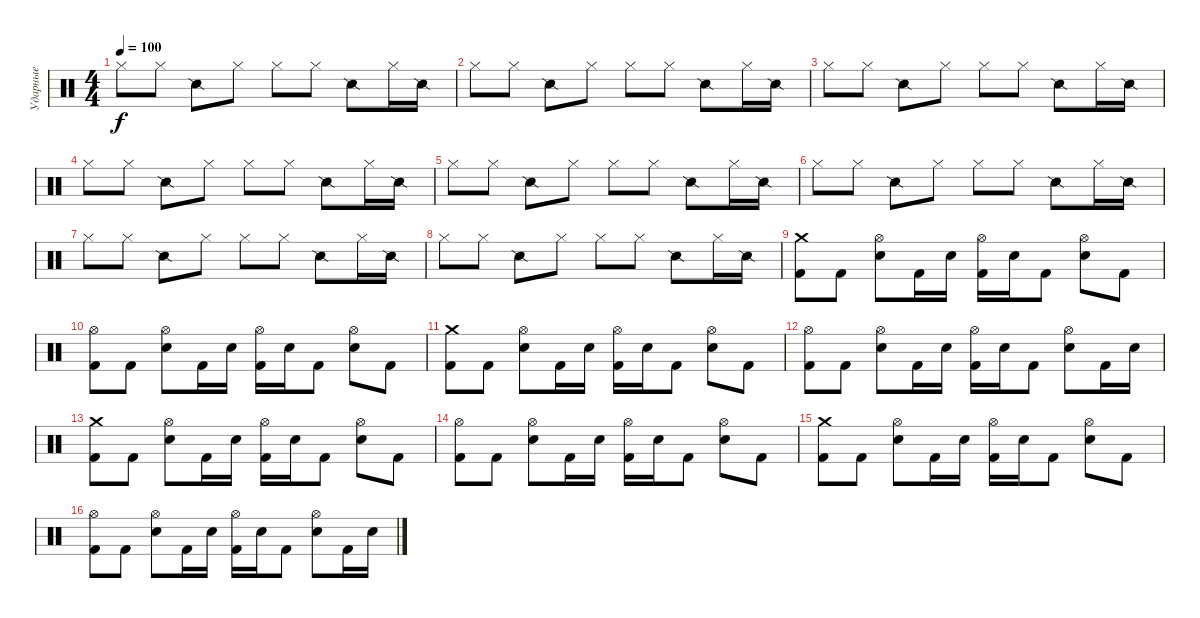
\track ("Ударные" "Ударные") {instrument percussion}
\staff {score}
\articulation defaults
\ts (4 4)
\tempo 100
\clef neutral
\ks c "Hi-Hat (closed)".8{dy f} "Hi-Hat (closed)".8 "Snare (side stick) 2".8 "Hi-Hat (closed)".8 "Hi-Hat (closed)".8 "Hi-Hat (closed)".8 "Snare (side stick) 2".8 "Hi-Hat (closed)".16 "Snare (side stick) 2".16
|
"Hi-Hat (closed)".8 "Hi-Hat (closed)".8 "Snare (side stick) 2".8 "Hi-Hat (closed)".8 "Hi-Hat (closed)".8 "Hi-Hat (closed)".8 "Snare (side stick) 2".8 "Hi-Hat (closed)".16 "Snare (side stick) 2".16 |
"Hi-Hat (closed)".8 "Hi-Hat (closed)".8 "Snare (side stick) 2".8 "Hi-Hat (closed)".8 "Hi-Hat (closed)".8 "Hi-Hat (closed)".8 "Snare (side stick) 2".8 "Hi-Hat (closed)".16 "Snare (side stick) 2".16 |
"Hi-Hat (closed)".8 "Hi-Hat (closed)".8 "Snare (side stick) 2".8 "Hi-Hat (closed)".8 "Hi-Hat (closed)".8 "Hi-Hat (closed)".8 "Snare (side stick) 2".8 "Hi-Hat (closed)".16 "Snare (side stick) 2".16 |
"Hi-Hat (closed)".8 "Hi-Hat (closed)".8 "Snare (side stick) 2".8 "Hi-Hat (closed)".8 "Hi-Hat (closed)".8 "Hi-Hat (closed)".8 "Snare (side stick) 2".8 "Hi-Hat (closed)".16 "Snare (side stick) 2".16 |
"Hi-Hat (closed)".8 "Hi-Hat (closed)".8 "Snare (side stick) 2".8 "Hi-Hat (closed)".8 "Hi-Hat (closed)".8 "Hi-Hat (closed)".8 "Snare (side stick) 2".8 "Hi-Hat (closed)".16 "Snare (side stick) 2".16 |
"Hi-Hat (closed)".8 "Hi-Hat (closed)".8 "Snare (side stick) 2".8 "Hi-Hat (closed)".8 "Hi-Hat (closed)".8 "Hi-Hat (closed)".8 "Snare (side stick) 2".8 "Hi-Hat (closed)".16 "Snare (side stick) 2".16 |
"Hi-Hat (closed)".8 "Hi-Hat (closed)".8 "Snare (side stick) 2".8 "Hi-Hat (closed)".8 "Hi-Hat (closed)".8 "Hi-Hat (closed)".8 "Snare (side stick) 2".8 "Hi-Hat (closed)".16 "Snare (side stick) 2".16 |
("Crash medium (hit)" "Kick (hit) 2").8 "Kick (hit) 2".8 ("Hi-Hat (open)" "Electric Snare (hit)").8 "Kick (hit) 2".16 "Electric Snare (hit)".16 ("Hi-Hat (open)" "Kick (hit) 2").16 "Electric Snare (hit)".16 "Kick (hit) 2".8 ("Hi-Hat (open)" "Electric Snare (hit)").8 "Kick (hit) 2".8 |
("Hi-Hat (open)" "Kick (hit) 2").8 "Kick (hit) 2".8 ("Hi-Hat (open)" "Electric Snare (hit)").8 "Kick (hit) 2".16 "Electric Snare (hit)".16 ("Hi-Hat (open)" "Kick (hit) 2").16 "Electric Snare (hit)".16 "Kick (hit) 2".8 ("Hi-Hat (open)" "Electric Snare (hit)").8 "Kick (hit) 2".8 |
("Crash medium (hit)" "Kick (hit) 2").8 "Kick (hit) 2".8 ("Hi-Hat (open)" "Electric Snare (hit)").8 "Kick (hit) 2".16 "Electric Snare (hit)".16 ("Hi-Hat (open)" "Kick (hit) 2").16 "Electric Snare (hit)".16 "Kick (hit) 2".8 ("Hi-Hat (open)" "Electric Snare (hit)").8 "Kick (hit) 2".8 |
("Hi-Hat (open)" "Kick (hit) 2").8 "Kick (hit) 2".8 ("Hi-Hat (open)" "Electric Snare (hit)").8 "Kick (hit) 2".16 "Electric Snare (hit)".16 ("Hi-Hat (open)" "Kick (hit) 2").16 "Electric Snare (hit)".16 "Kick (hit) 2".8 ("Hi-Hat (open)" "Electric Snare (hit)").8 "Kick (hit) 2".16 "Electric Snare (hit)".16 |
("Crash medium (hit)" "Kick (hit) 2").8 "Kick (hit) 2".8 ("Hi-Hat (open)" "Electric Snare (hit)").8 "Kick (hit) 2".16 "Electric Snare (hit)".16 ("Hi-Hat (open)" "Kick (hit) 2").16 "Electric Snare (hit)".16 "Kick (hit) 2".8 ("Hi-Hat (open)" "Electric Snare (hit)").8 "Kick (hit) 2".8 |
("Hi-Hat (open)" "Kick (hit) 2").8 "Kick (hit) 2".8 ("Hi-Hat (open)" "Electric Snare (hit)").8 "Kick (hit) 2".16 "Electric Snare (hit)".16 ("Hi-Hat (open)" "Kick (hit) 2").16 "Electric Snare (hit)".16 "Kick (hit) 2".8 ("Hi-Hat (open)" "Electric Snare (hit)").8 "Kick (hit) 2".8 |
("Crash medium (hit)" "Kick (hit) 2").8 "Kick (hit) 2".8 ("Hi-Hat (open)" "Electric Snare (hit)").8 "Kick (hit) 2".16 "Electric Snare (hit)".16 ("Hi-Hat (open)" "Kick (hit) 2").16 "Electric Snare (hit)".16 "Kick (hit) 2".8 ("Hi-Hat (open)" "Electric Snare (hit)").8 "Kick (hit) 2".8 |
("Hi-Hat (open)" "Kick (hit) 2").8 "Kick (hit) 2".8 ("Hi-Hat (open)" "Electric Snare (hit)").8 "Kick (hit) 2".16 "Electric Snare (hit)".16 ("Hi-Hat (open)" "Kick (hit) 2").16 "Electric Snare (hit)".16 "Kick (hit) 2".8 ("Hi-Hat (open)" "Electric Snare (hit)").8 "Kick (hit) 2".16 "Electric Snare (hit)".16
